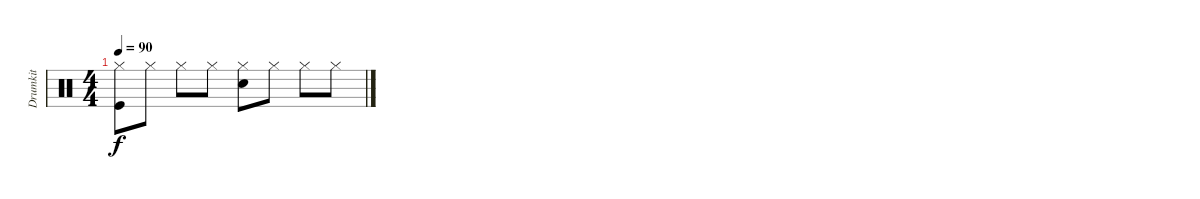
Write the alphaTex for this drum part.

\track ("Drumkit" "Drumkit") {instrument percussion}
\staff {score}
\articulation defaults
\ts (4 4)
\tempo 90
\clef neutral
\ks c
("Hi-Hat (closed)" "Kick (hit)").8{dy f} "Hi-Hat (closed)".8 "Hi-Hat (closed)".8 "Hi-Hat (closed)".8 ("Hi-Hat (closed)" "Snare (hit) 2").8 "Hi-Hat (closed)".8 "Hi-Hat (closed)".8 "Hi-Hat (closed)".8
